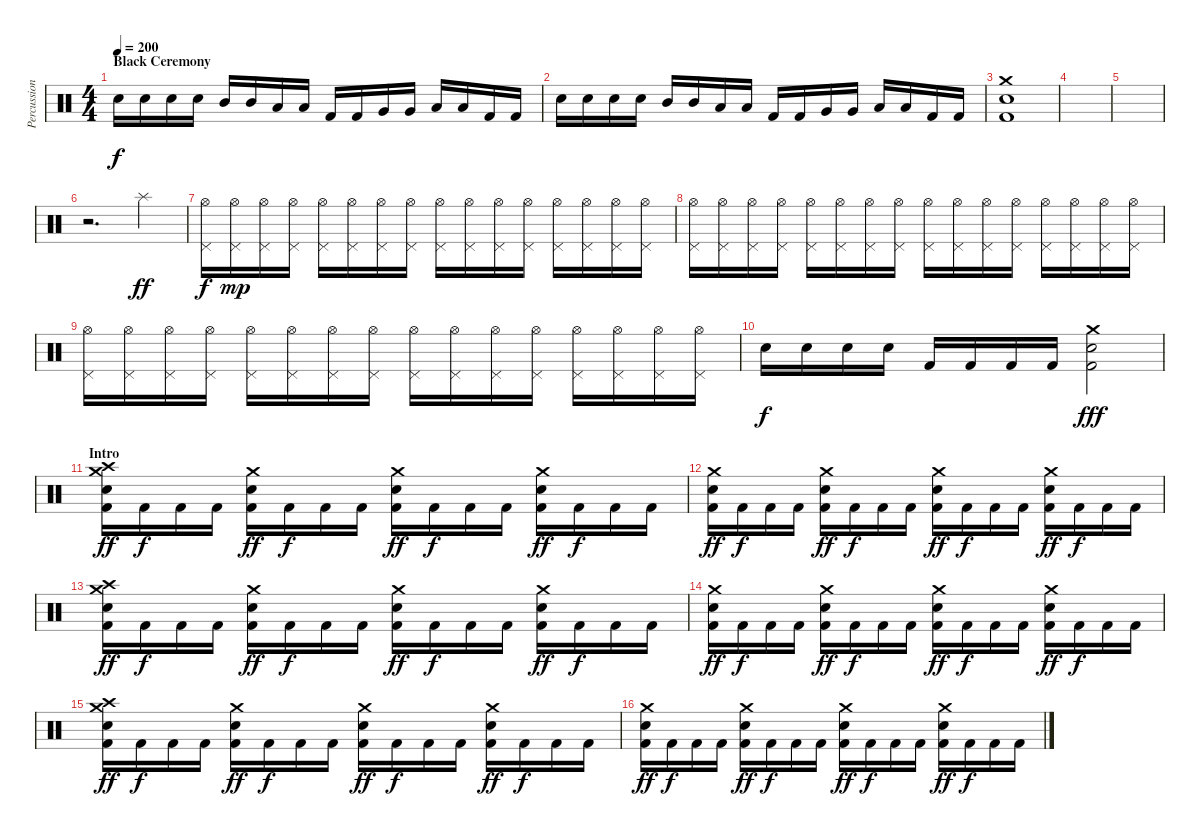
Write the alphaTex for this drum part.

\track ("Percussions" "Percussion") {instrument percussion}
\staff {score}
\articulation defaults
\ts (4 4)
\section ("" "Black Ceremony")
\tempo 200
\clef neutral
\ks c "Electric Snare (hit)".16{dy f volume 5} "Electric Snare (hit)".16 "Electric Snare (hit)".16 "Electric Snare (hit)".16 "Mid Tom (hit)".16 "Mid Tom (hit)".16 "Low Tom (hit)".16 "Low Tom (hit)".16 "Kick (hit) 2".16 "Kick (hit) 2".16 "Very Low Tom (hit)".16 "Very Low Tom (hit)".16 "Low Floor Tom (hit)".16 "Low Floor Tom (hit)".16 "Kick (hit) 2".16 "Kick (hit) 2".16
|
"Electric Snare (hit)".16 "Electric Snare (hit)".16 "Electric Snare (hit)".16 "Electric Snare (hit)".16 "Mid Tom (hit)".16 "Mid Tom (hit)".16 "Low Tom (hit)".16 "Low Tom (hit)".16 "Kick (hit) 2".16 "Kick (hit) 2".16 "Very Low Tom (hit)".16 "Very Low Tom (hit)".16 "Low Floor Tom (hit)".16 "Low Floor Tom (hit)".16 "Kick (hit) 2".16 "Kick (hit) 2".16 |
("Crash medium (hit)" "Electric Snare (hit)" "Kick (hit) 2").1 |
|
|
r.2{d} "Splash (hit)".4{dy ff} |
("Pedal Hi-Hat (hit)" "Hi-Hat (open)").16{dy f} ("Pedal Hi-Hat (hit)" "Hi-Hat (open)").16{dy mp} ("Pedal Hi-Hat (hit)" "Hi-Hat (open)").16 ("Pedal Hi-Hat (hit)" "Hi-Hat (open)").16 ("Pedal Hi-Hat (hit)" "Hi-Hat (open)").16 ("Pedal Hi-Hat (hit)" "Hi-Hat (open)").16 ("Pedal Hi-Hat (hit)" "Hi-Hat (open)").16 ("Pedal Hi-Hat (hit)" "Hi-Hat (open)").16 ("Pedal Hi-Hat (hit)" "Hi-Hat (open)").16 ("Pedal Hi-Hat (hit)" "Hi-Hat (open)").16 ("Pedal Hi-Hat (hit)" "Hi-Hat (open)").16 ("Pedal Hi-Hat (hit)" "Hi-Hat (open)").16 ("Pedal Hi-Hat (hit)" "Hi-Hat (open)").16 ("Pedal Hi-Hat (hit)" "Hi-Hat (open)").16 ("Pedal Hi-Hat (hit)" "Hi-Hat (open)").16 ("Pedal Hi-Hat (hit)" "Hi-Hat (open)").16 |
("Pedal Hi-Hat (hit)" "Hi-Hat (open)").16 ("Pedal Hi-Hat (hit)" "Hi-Hat (open)").16 ("Pedal Hi-Hat (hit)" "Hi-Hat (open)").16 ("Pedal Hi-Hat (hit)" "Hi-Hat (open)").16 ("Pedal Hi-Hat (hit)" "Hi-Hat (open)").16 ("Pedal Hi-Hat (hit)" "Hi-Hat (open)").16 ("Pedal Hi-Hat (hit)" "Hi-Hat (open)").16 ("Pedal Hi-Hat (hit)" "Hi-Hat (open)").16 ("Pedal Hi-Hat (hit)" "Hi-Hat (open)").16 ("Pedal Hi-Hat (hit)" "Hi-Hat (open)").16 ("Pedal Hi-Hat (hit)" "Hi-Hat (open)").16 ("Pedal Hi-Hat (hit)" "Hi-Hat (open)").16 ("Pedal Hi-Hat (hit)" "Hi-Hat (open)").16 ("Pedal Hi-Hat (hit)" "Hi-Hat (open)").16 ("Pedal Hi-Hat (hit)" "Hi-Hat (open)").16 ("Pedal Hi-Hat (hit)" "Hi-Hat (open)").16 |
("Pedal Hi-Hat (hit)" "Hi-Hat (open)").16 ("Pedal Hi-Hat (hit)" "Hi-Hat (open)").16 ("Pedal Hi-Hat (hit)" "Hi-Hat (open)").16 ("Pedal Hi-Hat (hit)" "Hi-Hat (open)").16 ("Pedal Hi-Hat (hit)" "Hi-Hat (open)").16 ("Pedal Hi-Hat (hit)" "Hi-Hat (open)").16 ("Pedal Hi-Hat (hit)" "Hi-Hat (open)").16 ("Pedal Hi-Hat (hit)" "Hi-Hat (open)").16 ("Pedal Hi-Hat (hit)" "Hi-Hat (open)").16 ("Pedal Hi-Hat (hit)" "Hi-Hat (open)").16 ("Pedal Hi-Hat (hit)" "Hi-Hat (open)").16 ("Pedal Hi-Hat (hit)" "Hi-Hat (open)").16 ("Pedal Hi-Hat (hit)" "Hi-Hat (open)").16 ("Pedal Hi-Hat (hit)" "Hi-Hat (open)").16 ("Pedal Hi-Hat (hit)" "Hi-Hat (open)").16 ("Pedal Hi-Hat (hit)" "Hi-Hat (open)").16 |
"Electric Snare (hit)".16{dy f} "Electric Snare (hit)".16 "Electric Snare (hit)".16 "Electric Snare (hit)".16 "Kick (hit) 2".16 "Kick (hit) 2".16 "Kick (hit) 2".16 "Kick (hit) 2".16 ("Crash medium (hit)" "Electric Snare (hit)" "Kick (hit) 2").2{dy fff} |
\section ("" "Intro")
("Crash high (hit)" "Crash medium (hit)" "Electric Snare (hit)" "Kick (hit) 2").16{dy ff volume 14} "Kick (hit) 2".16{dy f} "Kick (hit) 2".16 "Kick (hit) 2".16 ("Crash medium (hit)" "Electric Snare (hit)" "Kick (hit) 2").16{dy ff} "Kick (hit) 2".16{dy f} "Kick (hit) 2".16 "Kick (hit) 2".16 ("Crash medium (hit)" "Electric Snare (hit)" "Kick (hit) 2").16{dy ff} "Kick (hit) 2".16{dy f} "Kick (hit) 2".16 "Kick (hit) 2".16 ("Crash medium (hit)" "Electric Snare (hit)" "Kick (hit) 2").16{dy ff} "Kick (hit) 2".16{dy f} "Kick (hit) 2".16 "Kick (hit) 2".16 |
("Crash medium (hit)" "Electric Snare (hit)" "Kick (hit) 2").16{dy ff} "Kick (hit) 2".16{dy f} "Kick (hit) 2".16 "Kick (hit) 2".16 ("Crash medium (hit)" "Electric Snare (hit)" "Kick (hit) 2").16{dy ff} "Kick (hit) 2".16{dy f} "Kick (hit) 2".16 "Kick (hit) 2".16 ("Crash medium (hit)" "Electric Snare (hit)" "Kick (hit) 2").16{dy ff} "Kick (hit) 2".16{dy f} "Kick (hit) 2".16 "Kick (hit) 2".16 ("Crash medium (hit)" "Electric Snare (hit)" "Kick (hit) 2").16{dy ff} "Kick (hit) 2".16{dy f} "Kick (hit) 2".16 "Kick (hit) 2".16 |
("Crash high (hit)" "Crash medium (hit)" "Electric Snare (hit)" "Kick (hit) 2").16{dy ff} "Kick (hit) 2".16{dy f} "Kick (hit) 2".16 "Kick (hit) 2".16 ("Crash medium (hit)" "Electric Snare (hit)" "Kick (hit) 2").16{dy ff} "Kick (hit) 2".16{dy f} "Kick (hit) 2".16 "Kick (hit) 2".16 ("Crash medium (hit)" "Electric Snare (hit)" "Kick (hit) 2").16{dy ff} "Kick (hit) 2".16{dy f} "Kick (hit) 2".16 "Kick (hit) 2".16 ("Crash medium (hit)" "Electric Snare (hit)" "Kick (hit) 2").16{dy ff} "Kick (hit) 2".16{dy f} "Kick (hit) 2".16 "Kick (hit) 2".16 |
("Crash medium (hit)" "Electric Snare (hit)" "Kick (hit) 2").16{dy ff} "Kick (hit) 2".16{dy f} "Kick (hit) 2".16 "Kick (hit) 2".16 ("Crash medium (hit)" "Electric Snare (hit)" "Kick (hit) 2").16{dy ff} "Kick (hit) 2".16{dy f} "Kick (hit) 2".16 "Kick (hit) 2".16 ("Crash medium (hit)" "Electric Snare (hit)" "Kick (hit) 2").16{dy ff} "Kick (hit) 2".16{dy f} "Kick (hit) 2".16 "Kick (hit) 2".16 ("Crash medium (hit)" "Electric Snare (hit)" "Kick (hit) 2").16{dy ff} "Kick (hit) 2".16{dy f} "Kick (hit) 2".16 "Kick (hit) 2".16 |
("Crash high (hit)" "Crash medium (hit)" "Electric Snare (hit)" "Kick (hit) 2").16{dy ff} "Kick (hit) 2".16{dy f} "Kick (hit) 2".16 "Kick (hit) 2".16 ("Crash medium (hit)" "Electric Snare (hit)" "Kick (hit) 2").16{dy ff} "Kick (hit) 2".16{dy f} "Kick (hit) 2".16 "Kick (hit) 2".16 ("Crash medium (hit)" "Electric Snare (hit)" "Kick (hit) 2").16{dy ff} "Kick (hit) 2".16{dy f} "Kick (hit) 2".16 "Kick (hit) 2".16 ("Crash medium (hit)" "Electric Snare (hit)" "Kick (hit) 2").16{dy ff} "Kick (hit) 2".16{dy f} "Kick (hit) 2".16 "Kick (hit) 2".16 |
("Crash medium (hit)" "Electric Snare (hit)" "Kick (hit) 2").16{dy ff} "Kick (hit) 2".16{dy f} "Kick (hit) 2".16 "Kick (hit) 2".16 ("Crash medium (hit)" "Electric Snare (hit)" "Kick (hit) 2").16{dy ff} "Kick (hit) 2".16{dy f} "Kick (hit) 2".16 "Kick (hit) 2".16 ("Crash medium (hit)" "Electric Snare (hit)" "Kick (hit) 2").16{dy ff} "Kick (hit) 2".16{dy f} "Kick (hit) 2".16 "Kick (hit) 2".16 ("Crash medium (hit)" "Electric Snare (hit)" "Kick (hit) 2").16{dy ff} "Kick (hit) 2".16{dy f} "Kick (hit) 2".16 "Kick (hit) 2".16
